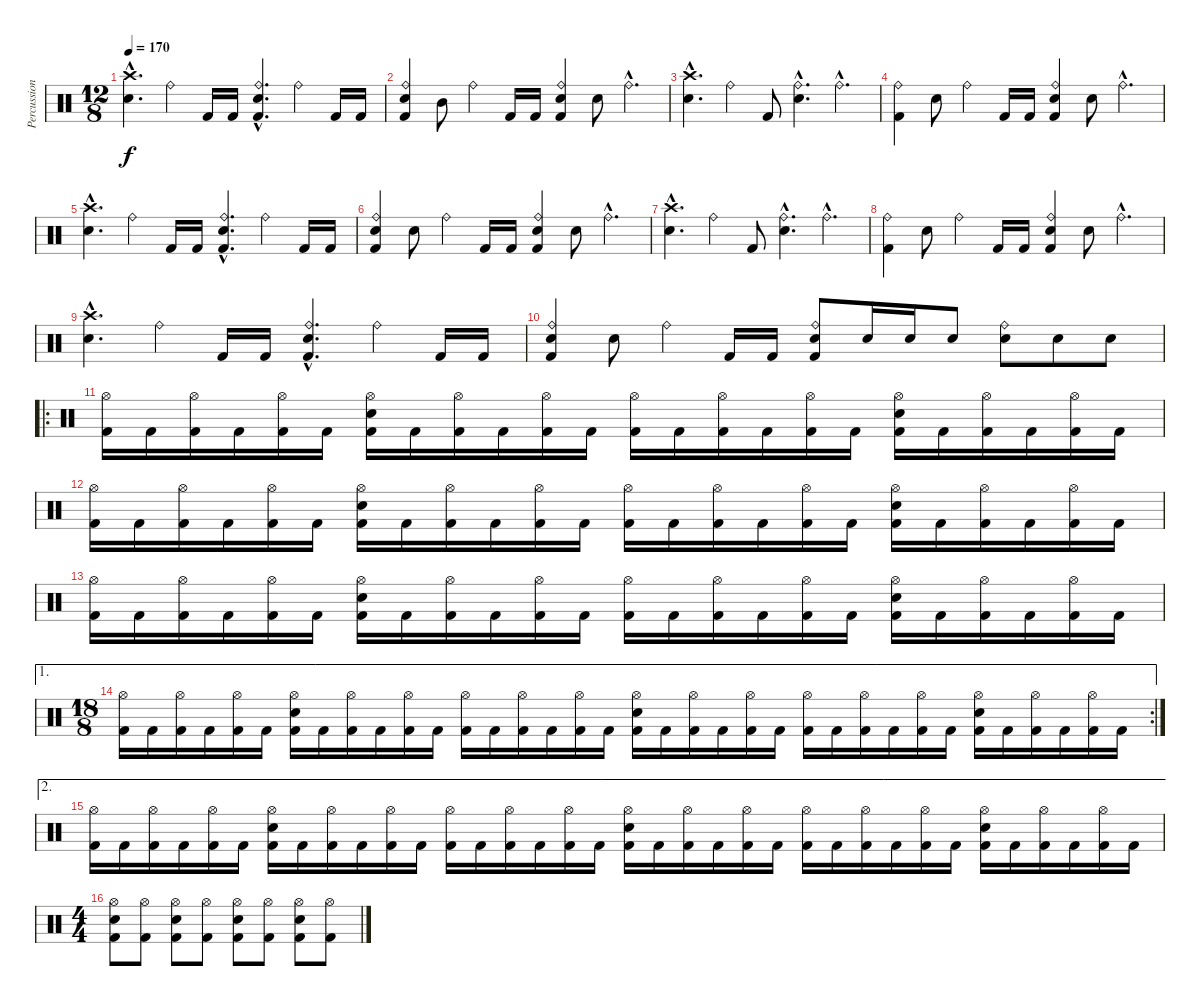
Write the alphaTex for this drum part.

\track ("Percussion" "Percussion") {instrument percussion}
\staff {score}
\articulation defaults
\ts (12 8)
\tempo 170
\clef neutral
\ks c
("Snare (hit) 2"{hac} "Crash high (hit)"{hac}).4{d dy f} "Ride (bell)".4 "Kick (hit) 2".16 "Kick (hit) 2".16 ("Kick (hit) 2"{hac} "Snare (hit) 2"{hac} "Ride (bell)"{hac}).4{d} "Ride (bell)".4 "Kick (hit) 2".16 "Kick (hit) 2".16 |
("Kick (hit) 2" "Snare (hit) 2" "Ride (bell)").4 "Mid Tom (hit)".8 "Ride (bell)".4 "Kick (hit) 2".16 "Kick (hit) 2".16 ("Kick (hit) 2" "Snare (hit) 2" "Ride (bell)").4 "Snare (hit) 2".8 "Ride (bell)"{hac}.4{d} |
("Snare (hit) 2"{hac} "Crash high (hit)"{hac}).4{d} "Ride (bell)".4 "Kick (hit) 2".8 ("Snare (hit) 2"{hac} "Ride (bell)"{hac}).4{d} "Ride (bell)"{hac}.4{d} |
("Kick (hit) 2" "Ride (bell)").4 "Snare (hit) 2".8 "Ride (bell)".4 "Kick (hit) 2".16 "Kick (hit) 2".16 ("Kick (hit) 2" "Snare (hit) 2" "Ride (bell)").4 "Snare (hit) 2".8 "Ride (bell)"{hac}.4{d} |
("Snare (hit) 2"{hac} "Crash high (hit)"{hac}).4{d} "Ride (bell)".4 "Kick (hit) 2".16 "Kick (hit) 2".16 ("Kick (hit) 2"{hac} "Snare (hit) 2"{hac} "Ride (bell)"{hac}).4{d} "Ride (bell)".4 "Kick (hit) 2".16 "Kick (hit) 2".16 |
("Kick (hit) 2" "Snare (hit) 2" "Ride (bell)").4 "Snare (hit) 2".8 "Ride (bell)".4 "Kick (hit) 2".16 "Kick (hit) 2".16 ("Kick (hit) 2" "Snare (hit) 2" "Ride (bell)").4 "Snare (hit) 2".8 "Ride (bell)"{hac}.4{d} |
("Snare (hit) 2"{hac} "Crash high (hit)"{hac}).4{d} "Ride (bell)".4 "Kick (hit) 2".8 ("Snare (hit) 2"{hac} "Ride (bell)"{hac}).4{d} "Ride (bell)"{hac}.4{d} |
("Kick (hit) 2" "Ride (bell)").4 "Snare (hit) 2".8 "Ride (bell)".4 "Kick (hit) 2".16 "Kick (hit) 2".16 ("Kick (hit) 2" "Snare (hit) 2" "Ride (bell)").4 "Snare (hit) 2".8 "Ride (bell)"{hac}.4{d} |
("Snare (hit) 2"{hac} "Crash high (hit)"{hac}).4{d} "Ride (bell)".4 "Kick (hit) 2".16 "Kick (hit) 2".16 ("Kick (hit) 2"{hac} "Snare (hit) 2"{hac} "Ride (bell)"{hac}).4{d} "Ride (bell)".4 "Kick (hit) 2".16 "Kick (hit) 2".16 |
("Kick (hit) 2" "Snare (hit) 2" "Ride (bell)").4 "Snare (hit) 2".8 "Ride (bell)".4 "Kick (hit) 2".16 "Kick (hit) 2".16 ("Kick (hit) 2" "Snare (hit) 2" "Ride (bell)").8 "Snare (hit) 2".16 "Snare (hit) 2".16 "Snare (hit) 2".8 ("Snare (hit) 2" "Ride (bell)").8 "Snare (hit) 2".8 "Snare (hit) 2".8 |
\ro
("Kick (hit) 2" "Hi-Hat (open)").16 "Kick (hit) 2".16 ("Kick (hit) 2" "Hi-Hat (open)").16 "Kick (hit) 2".16 ("Kick (hit) 2" "Hi-Hat (open)").16 "Kick (hit) 2".16 ("Kick (hit) 2" "Snare (hit) 2" "Hi-Hat (open)").16 "Kick (hit) 2".16 ("Kick (hit) 2" "Hi-Hat (open)").16 "Kick (hit) 2".16 ("Kick (hit) 2" "Hi-Hat (open)").16 "Kick (hit) 2".16 ("Kick (hit) 2" "Hi-Hat (open)").16 "Kick (hit) 2".16 ("Kick (hit) 2" "Hi-Hat (open)").16 "Kick (hit) 2".16 ("Kick (hit) 2" "Hi-Hat (open)").16 "Kick (hit) 2".16 ("Kick (hit) 2" "Snare (hit) 2" "Hi-Hat (open)").16 "Kick (hit) 2".16 ("Kick (hit) 2" "Hi-Hat (open)").16 "Kick (hit) 2".16 ("Kick (hit) 2" "Hi-Hat (open)").16 "Kick (hit) 2".16 |
("Kick (hit) 2" "Hi-Hat (open)").16 "Kick (hit) 2".16 ("Kick (hit) 2" "Hi-Hat (open)").16 "Kick (hit) 2".16 ("Kick (hit) 2" "Hi-Hat (open)").16 "Kick (hit) 2".16 ("Kick (hit) 2" "Snare (hit) 2" "Hi-Hat (open)").16 "Kick (hit) 2".16 ("Kick (hit) 2" "Hi-Hat (open)").16 "Kick (hit) 2".16 ("Kick (hit) 2" "Hi-Hat (open)").16 "Kick (hit) 2".16 ("Kick (hit) 2" "Hi-Hat (open)").16 "Kick (hit) 2".16 ("Kick (hit) 2" "Hi-Hat (open)").16 "Kick (hit) 2".16 ("Kick (hit) 2" "Hi-Hat (open)").16 "Kick (hit) 2".16 ("Kick (hit) 2" "Snare (hit) 2" "Hi-Hat (open)").16 "Kick (hit) 2".16 ("Kick (hit) 2" "Hi-Hat (open)").16 "Kick (hit) 2".16 ("Kick (hit) 2" "Hi-Hat (open)").16 "Kick (hit) 2".16 |
("Kick (hit) 2" "Hi-Hat (open)").16 "Kick (hit) 2".16 ("Kick (hit) 2" "Hi-Hat (open)").16 "Kick (hit) 2".16 ("Kick (hit) 2" "Hi-Hat (open)").16 "Kick (hit) 2".16 ("Kick (hit) 2" "Snare (hit) 2" "Hi-Hat (open)").16 "Kick (hit) 2".16 ("Kick (hit) 2" "Hi-Hat (open)").16 "Kick (hit) 2".16 ("Kick (hit) 2" "Hi-Hat (open)").16 "Kick (hit) 2".16 ("Kick (hit) 2" "Hi-Hat (open)").16 "Kick (hit) 2".16 ("Kick (hit) 2" "Hi-Hat (open)").16 "Kick (hit) 2".16 ("Kick (hit) 2" "Hi-Hat (open)").16 "Kick (hit) 2".16 ("Kick (hit) 2" "Snare (hit) 2" "Hi-Hat (open)").16 "Kick (hit) 2".16 ("Kick (hit) 2" "Hi-Hat (open)").16 "Kick (hit) 2".16 ("Kick (hit) 2" "Hi-Hat (open)").16 "Kick (hit) 2".16 |
\ae 1
\rc 2
\ts (18 8)
("Kick (hit) 2" "Hi-Hat (open)").16 "Kick (hit) 2".16 ("Kick (hit) 2" "Hi-Hat (open)").16 "Kick (hit) 2".16 ("Kick (hit) 2" "Hi-Hat (open)").16 "Kick (hit) 2".16 ("Kick (hit) 2" "Snare (hit) 2" "Hi-Hat (open)").16 "Kick (hit) 2".16 ("Kick (hit) 2" "Hi-Hat (open)").16 "Kick (hit) 2".16 ("Kick (hit) 2" "Hi-Hat (open)").16 "Kick (hit) 2".16 ("Kick (hit) 2" "Hi-Hat (open)").16 "Kick (hit) 2".16 ("Kick (hit) 2" "Hi-Hat (open)").16 "Kick (hit) 2".16 ("Kick (hit) 2" "Hi-Hat (open)").16 "Kick (hit) 2".16 ("Kick (hit) 2" "Snare (hit) 2" "Hi-Hat (open)").16 "Kick (hit) 2".16 ("Kick (hit) 2" "Hi-Hat (open)").16 "Kick (hit) 2".16 ("Kick (hit) 2" "Hi-Hat (open)").16 "Kick (hit) 2".16 ("Kick (hit) 2" "Hi-Hat (open)").16 "Kick (hit) 2".16 ("Kick (hit) 2" "Hi-Hat (open)").16 "Kick (hit) 2".16 ("Kick (hit) 2" "Hi-Hat (open)").16 "Kick (hit) 2".16 ("Kick (hit) 2" "Snare (hit) 2" "Hi-Hat (open)").16 "Kick (hit) 2".16 ("Kick (hit) 2" "Hi-Hat (open)").16 "Kick (hit) 2".16 ("Kick (hit) 2" "Hi-Hat (open)").16 "Kick (hit) 2".16 |
\ae 2
("Kick (hit) 2" "Hi-Hat (open)").16 "Kick (hit) 2".16 ("Kick (hit) 2" "Hi-Hat (open)").16 "Kick (hit) 2".16 ("Kick (hit) 2" "Hi-Hat (open)").16 "Kick (hit) 2".16 ("Kick (hit) 2" "Snare (hit) 2" "Hi-Hat (open)").16 "Kick (hit) 2".16 ("Kick (hit) 2" "Hi-Hat (open)").16 "Kick (hit) 2".16 ("Kick (hit) 2" "Hi-Hat (open)").16 "Kick (hit) 2".16 ("Kick (hit) 2" "Hi-Hat (open)").16 "Kick (hit) 2".16 ("Kick (hit) 2" "Hi-Hat (open)").16 "Kick (hit) 2".16 ("Kick (hit) 2" "Hi-Hat (open)").16 "Kick (hit) 2".16 ("Kick (hit) 2" "Snare (hit) 2" "Hi-Hat (open)").16 "Kick (hit) 2".16 ("Kick (hit) 2" "Hi-Hat (open)").16 "Kick (hit) 2".16 ("Kick (hit) 2" "Hi-Hat (open)").16 "Kick (hit) 2".16 ("Kick (hit) 2" "Hi-Hat (open)").16 "Kick (hit) 2".16 ("Kick (hit) 2" "Hi-Hat (open)").16 "Kick (hit) 2".16 ("Kick (hit) 2" "Hi-Hat (open)").16 "Kick (hit) 2".16 ("Kick (hit) 2" "Snare (hit) 2" "Hi-Hat (open)").16 "Kick (hit) 2".16 ("Kick (hit) 2" "Hi-Hat (open)").16 "Kick (hit) 2".16 ("Kick (hit) 2" "Hi-Hat (open)").16 "Kick (hit) 2".16 |
\ts (4 4)
("Kick (hit) 2" "Snare (hit) 2" "Hi-Hat (open)").8 ("Kick (hit) 2" "Hi-Hat (open)").8 ("Kick (hit) 2" "Snare (hit) 2" "Hi-Hat (open)").8 ("Kick (hit) 2" "Hi-Hat (open)").8 ("Kick (hit) 2" "Snare (hit) 2" "Hi-Hat (open)").8 ("Kick (hit) 2" "Hi-Hat (open)").8 ("Kick (hit) 2" "Snare (hit) 2" "Hi-Hat (open)").8 ("Kick (hit) 2" "Hi-Hat (open)").8
